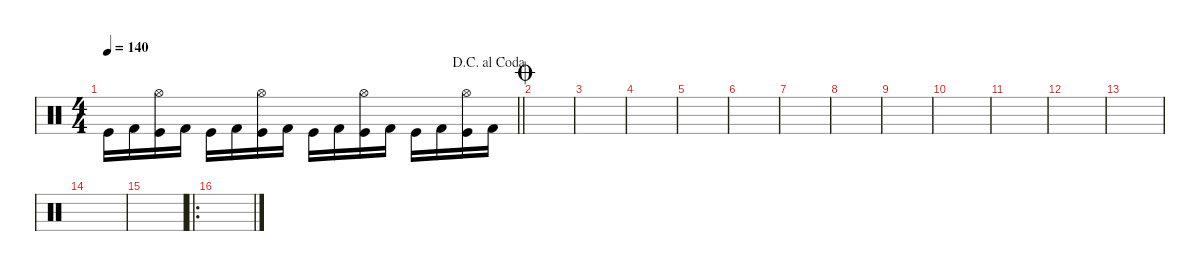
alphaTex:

\defaultSystemsLayout 4
\hideDynamics
\bracketExtendMode nobrackets
\singleTrackTrackNamePolicy hidden
\multiTrackTrackNamePolicy hidden
\firstSystemTrackNameMode fullname
\firstSystemTrackNameOrientation horizontal
\otherSystemsTrackNameOrientation horizontal
\track ("Drumkit" "drm.") {instrument percussion}
\staff {score}
\articulation defaults
\ts (4 4)
\jump dacapoalcoda
\tempo 140
\clef neutral
\barLineRight lightlight
\ks c "Kick (hit)".16{dy mf beam Down} "Kick (hit) 2".16{beam Down}
("Kick (hit)" "Hi-Hat (open)").16{beam Down} "Kick (hit) 2".16{beam Down} "Kick (hit)".16{beam Down} "Kick (hit) 2".16{beam Down} ("Kick (hit)" "Hi-Hat (open)").16{beam Down} "Kick (hit) 2".16{beam Down} "Kick (hit)".16{beam Down} "Kick (hit) 2".16{beam Down} ("Kick (hit)" "Hi-Hat (open)").16{beam Down} "Kick (hit) 2".16{beam Down} "Kick (hit)".16{beam Down} "Kick (hit) 2".16{beam Down} ("Kick (hit)" "Hi-Hat (open)").16{beam Down} "Kick (hit) 2".16{beam Down} |
\jump coda
|
|
|
|
|
|
|
|
|
|
|
|
|
|
\ro
